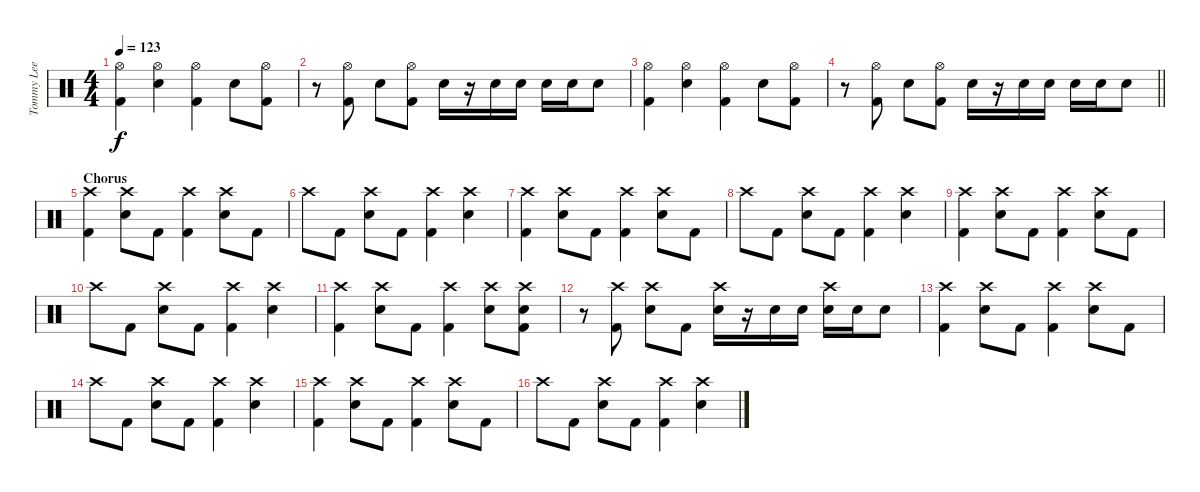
\track ("Tommy Lee" "Tommy Lee") {instrument percussion}
\staff {score}
\articulation defaults
\ts (4 4)
\tempo 123
\clef neutral
\ks c
("Hi-Hat (open)" "Kick (hit) 2").4{dy f} ("Hi-Hat (open)" "Snare (hit) 2").4 ("Hi-Hat (open)" "Kick (hit) 2").4 "Snare (hit) 2".8 ("Hi-Hat (open)" "Kick (hit) 2").8 |
r.8 ("Hi-Hat (open)" "Kick (hit) 2").8 "Snare (hit) 2".8 ("Hi-Hat (open)" "Kick (hit) 2").8 "Snare (hit) 2".16 r.16 "Snare (hit) 2".16 "Snare (hit) 2".16 "Snare (hit) 2".16 "Snare (hit) 2".16 "Snare (hit) 2".8 |
("Hi-Hat (open)" "Kick (hit) 2").4 ("Hi-Hat (open)" "Snare (hit) 2").4 ("Hi-Hat (open)" "Kick (hit) 2").4 "Snare (hit) 2".8 ("Hi-Hat (open)" "Kick (hit) 2").8 |
\barLineRight lightlight
r.8 ("Hi-Hat (open)" "Kick (hit) 2").8 "Snare (hit) 2".8 ("Hi-Hat (open)" "Kick (hit) 2").8 "Snare (hit) 2".16 r.16 "Snare (hit) 2".16 "Snare (hit) 2".16 "Snare (hit) 2".16 "Snare (hit) 2".16 "Snare (hit) 2".8 |
\section ("" "Chorus")
("Crash high (hit)" "Kick (hit) 2").4 ("Crash high (hit)" "Snare (hit) 2").8 "Kick (hit) 2".8 ("Crash high (hit)" "Kick (hit) 2").4 ("Crash high (hit)" "Snare (hit) 2").8 "Kick (hit) 2".8 |
"Crash high (hit)".8 "Kick (hit) 2".8 ("Crash high (hit)" "Snare (hit) 2").8 "Kick (hit) 2".8 ("Crash high (hit)" "Kick (hit) 2").4 ("Crash high (hit)" "Snare (hit) 2").4 |
("Crash high (hit)" "Kick (hit) 2").4 ("Crash high (hit)" "Snare (hit) 2").8 "Kick (hit) 2".8 ("Crash high (hit)" "Kick (hit) 2").4 ("Crash high (hit)" "Snare (hit) 2").8 "Kick (hit) 2".8 |
"Crash high (hit)".8 "Kick (hit) 2".8 ("Crash high (hit)" "Snare (hit) 2").8 "Kick (hit) 2".8 ("Crash high (hit)" "Kick (hit) 2").4 ("Crash high (hit)" "Snare (hit) 2").4 |
("Crash high (hit)" "Kick (hit) 2").4 ("Crash high (hit)" "Snare (hit) 2").8 "Kick (hit) 2".8 ("Crash high (hit)" "Kick (hit) 2").4 ("Crash high (hit)" "Snare (hit) 2").8 "Kick (hit) 2".8 |
"Crash high (hit)".8 "Kick (hit) 2".8 ("Crash high (hit)" "Snare (hit) 2").8 "Kick (hit) 2".8 ("Crash high (hit)" "Kick (hit) 2").4 ("Crash high (hit)" "Snare (hit) 2").4 |
("Crash high (hit)" "Kick (hit) 2").4 ("Crash high (hit)" "Snare (hit) 2").8 "Kick (hit) 2".8 ("Crash high (hit)" "Kick (hit) 2").4 ("Crash high (hit)" "Snare (hit) 2").8 ("Crash high (hit)" "Snare (hit) 2" "Kick (hit) 2").8 |
r.8 ("Crash high (hit)" "Kick (hit) 2").8 ("Crash high (hit)" "Snare (hit) 2").8 "Kick (hit) 2".8 ("Crash high (hit)" "Snare (hit) 2").16 r.16 "Snare (hit) 2".16 "Snare (hit) 2".16 ("Crash high (hit)" "Snare (hit) 2").16 "Snare (hit) 2".16 "Snare (hit) 2".8 |
("Crash high (hit)" "Kick (hit) 2").4 ("Crash high (hit)" "Snare (hit) 2").8 "Kick (hit) 2".8 ("Crash high (hit)" "Kick (hit) 2").4 ("Crash high (hit)" "Snare (hit) 2").8 "Kick (hit) 2".8 |
"Crash high (hit)".8 "Kick (hit) 2".8 ("Crash high (hit)" "Snare (hit) 2").8 "Kick (hit) 2".8 ("Crash high (hit)" "Kick (hit) 2").4 ("Crash high (hit)" "Snare (hit) 2").4 |
("Crash high (hit)" "Kick (hit) 2").4 ("Crash high (hit)" "Snare (hit) 2").8 "Kick (hit) 2".8 ("Crash high (hit)" "Kick (hit) 2").4 ("Crash high (hit)" "Snare (hit) 2").8 "Kick (hit) 2".8 |
"Crash high (hit)".8 "Kick (hit) 2".8 ("Crash high (hit)" "Snare (hit) 2").8 "Kick (hit) 2".8 ("Crash high (hit)" "Kick (hit) 2").4 ("Crash high (hit)" "Snare (hit) 2").4
